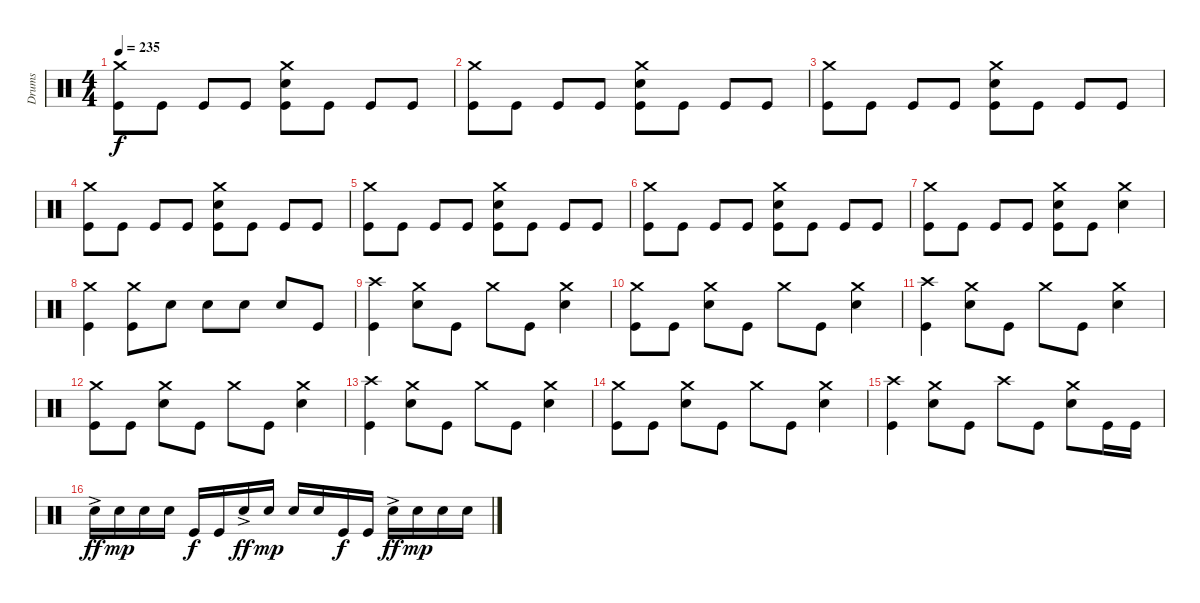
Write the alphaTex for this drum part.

\track ("Drums" "Drums") {instrument percussion}
\staff {score}
\articulation defaults
\ts (4 4)
\tempo 235
\clef neutral
\ks c
("Crash medium (hit)" "Kick (hit)").8{dy f} "Kick (hit)".8 "Kick (hit)".8 "Kick (hit)".8 ("Crash medium (hit)" "Snare (hit) 2" "Kick (hit)").8 "Kick (hit)".8 "Kick (hit)".8 "Kick (hit)".8 |
("Crash medium (hit)" "Kick (hit)").8 "Kick (hit)".8 "Kick (hit)".8 "Kick (hit)".8 ("Crash medium (hit)" "Snare (hit) 2" "Kick (hit)").8 "Kick (hit)".8 "Kick (hit)".8 "Kick (hit)".8 |
("Crash medium (hit)" "Kick (hit)").8 "Kick (hit)".8 "Kick (hit)".8 "Kick (hit)".8 ("Crash medium (hit)" "Snare (hit) 2" "Kick (hit)").8 "Kick (hit)".8 "Kick (hit)".8 "Kick (hit)".8 |
("Crash medium (hit)" "Kick (hit)").8 "Kick (hit)".8 "Kick (hit)".8 "Kick (hit)".8 ("Crash medium (hit)" "Snare (hit) 2" "Kick (hit)").8 "Kick (hit)".8 "Kick (hit)".8 "Kick (hit)".8 |
("Crash medium (hit)" "Kick (hit)").8 "Kick (hit)".8 "Kick (hit)".8 "Kick (hit)".8 ("Crash medium (hit)" "Snare (hit) 2" "Kick (hit)").8 "Kick (hit)".8 "Kick (hit)".8 "Kick (hit)".8 |
("Crash medium (hit)" "Kick (hit)").8 "Kick (hit)".8 "Kick (hit)".8 "Kick (hit)".8 ("Crash medium (hit)" "Snare (hit) 2" "Kick (hit)").8 "Kick (hit)".8 "Kick (hit)".8 "Kick (hit)".8 |
("Crash medium (hit)" "Kick (hit)").8 "Kick (hit)".8 "Kick (hit)".8 "Kick (hit)".8 ("Crash medium (hit)" "Snare (hit) 2" "Kick (hit)").8 "Kick (hit)".8 ("Crash medium (hit)" "Snare (hit) 2").4 |
("Crash medium (hit)" "Kick (hit)").4 ("Crash medium (hit)" "Kick (hit)").8 "Snare (hit) 2".8 "Snare (hit) 2".8 "Snare (hit) 2".8 "Snare (hit) 2".8 "Kick (hit)".8 |
("Crash high (hit)" "Kick (hit)").4 ("Crash medium (hit)" "Snare (hit) 2").8 "Kick (hit)".8 "Crash medium (hit)".8 "Kick (hit)".8 ("Crash medium (hit)" "Snare (hit) 2").4 |
("Crash medium (hit)" "Kick (hit)").8 "Kick (hit)".8 ("Crash medium (hit)" "Snare (hit) 2").8 "Kick (hit)".8 "Crash medium (hit)".8 "Kick (hit)".8 ("Crash medium (hit)" "Snare (hit) 2").4 |
("Crash high (hit)" "Kick (hit)").4 ("Crash medium (hit)" "Snare (hit) 2").8 "Kick (hit)".8 "Crash medium (hit)".8 "Kick (hit)".8 ("Crash medium (hit)" "Snare (hit) 2").4 |
("Crash medium (hit)" "Kick (hit)").8 "Kick (hit)".8 ("Crash medium (hit)" "Snare (hit) 2").8 "Kick (hit)".8 "Crash medium (hit)".8 "Kick (hit)".8 ("Crash medium (hit)" "Snare (hit) 2").4 |
("Crash high (hit)" "Kick (hit)").4 ("Crash medium (hit)" "Snare (hit) 2").8 "Kick (hit)".8 "Crash medium (hit)".8 "Kick (hit)".8 ("Crash medium (hit)" "Snare (hit) 2").4 |
("Crash medium (hit)" "Kick (hit)").8 "Kick (hit)".8 ("Crash medium (hit)" "Snare (hit) 2").8 "Kick (hit)".8 "Crash medium (hit)".8 "Kick (hit)".8 ("Crash medium (hit)" "Snare (hit) 2").4 |
("Crash high (hit)" "Kick (hit)").4 ("Crash medium (hit)" "Snare (hit) 2").8 "Kick (hit)".8 "Crash high (hit)".8 "Kick (hit)".8 ("Crash medium (hit)" "Snare (hit) 2").8 "Kick (hit)".16 "Kick (hit)".16 |
"Snare (hit) 2"{ac}.16{dy ff} "Snare (hit) 2".16{dy mp} "Snare (hit) 2".16 "Snare (hit) 2".16 "Kick (hit)".16{dy f} "Kick (hit)".16 "Snare (hit) 2"{ac}.16{dy ff} "Snare (hit) 2".16{dy mp} "Snare (hit) 2".16 "Snare (hit) 2".16 "Kick (hit)".16{dy f} "Kick (hit)".16 "Snare (hit) 2"{ac}.16{dy ff} "Snare (hit) 2".16{dy mp} "Snare (hit) 2".16 "Snare (hit) 2".16
